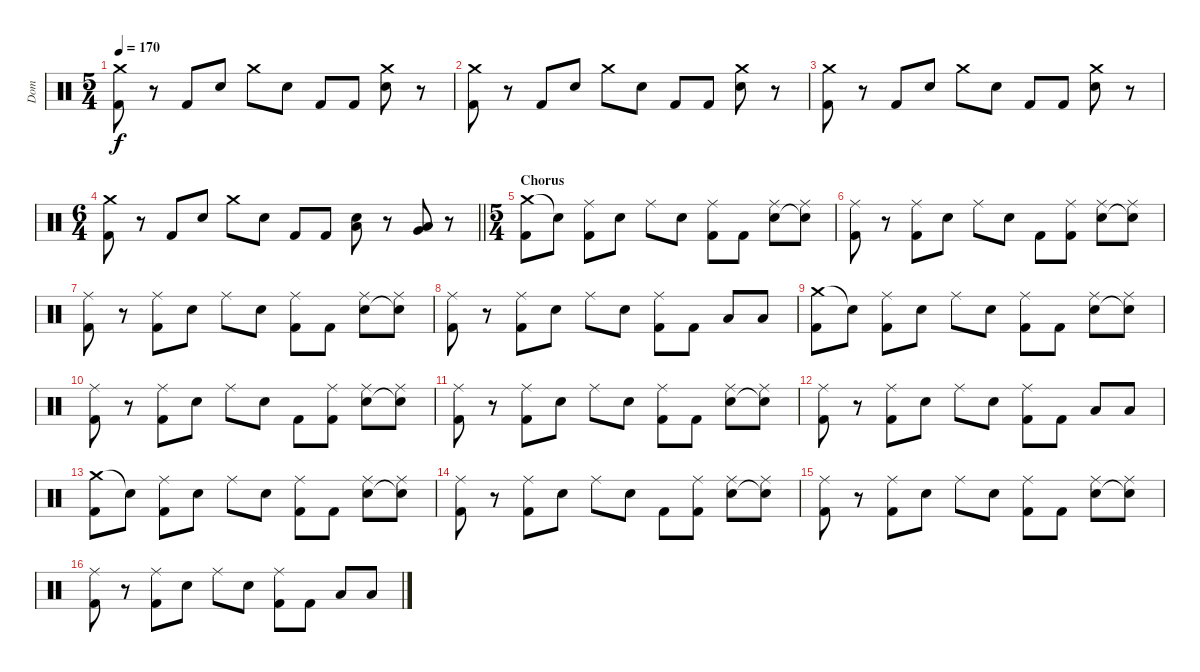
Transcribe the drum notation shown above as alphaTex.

\track ("Dom" "Dom") {instrument percussion}
\staff {score}
\articulation defaults
\ts (5 4)
\tempo 170
\clef neutral
\ks c
("Crash medium (hit)" "Kick (hit) 2").8{dy f} r.8 "Kick (hit) 2".8 "Electric Snare (hit)".8 "Crash medium (hit)".8 "Electric Snare (hit)".8 "Kick (hit) 2".8 "Kick (hit) 2".8 ("Crash medium (hit)" "Electric Snare (hit)").8 r.8 |
("Crash medium (hit)" "Kick (hit) 2").8 r.8 "Kick (hit) 2".8 "Electric Snare (hit)".8 "Crash medium (hit)".8 "Electric Snare (hit)".8 "Kick (hit) 2".8 "Kick (hit) 2".8 ("Crash medium (hit)" "Electric Snare (hit)").8 r.8 |
("Crash medium (hit)" "Kick (hit) 2").8 r.8 "Kick (hit) 2".8 "Electric Snare (hit)".8 "Crash medium (hit)".8 "Electric Snare (hit)".8 "Kick (hit) 2".8 "Kick (hit) 2".8 ("Crash medium (hit)" "Electric Snare (hit)").8 r.8 |
\ts (6 4)
\barLineRight lightlight
("Crash medium (hit)" "Kick (hit) 2").8 r.8 "Kick (hit) 2".8 "Electric Snare (hit)".8 "Crash medium (hit)".8 "Electric Snare (hit)".8 "Kick (hit) 2".8 "Kick (hit) 2".8 ("Low Tom (hit)" "Electric Snare (hit)").8 r.8 ("Low Tom (hit)" "Very Low Tom (hit)").8 r.8 |
\ts (5 4)
\section ("" "Chorus")
("Crash medium (hit)" "Kick (hit) 2").8 "Snare (hit)"{t}.8 ("Ride (middle)" "Kick (hit) 2").8 "Electric Snare (hit)".8 "Ride (middle)".8 "Electric Snare (hit)".8 ("Ride (middle)" "Kick (hit) 2").8 "Kick (hit) 2".8 ("Ride (middle)" "Electric Snare (hit)").8 ("Ride (middle)" "Snare (hit)"{t}).8 |
("Ride (middle)" "Kick (hit) 2").8 r.8 ("Ride (middle)" "Kick (hit) 2").8 "Electric Snare (hit)".8 "Ride (middle)".8 "Electric Snare (hit)".8 "Kick (hit) 2".8 ("Ride (middle)" "Kick (hit) 2").8 ("Ride (middle)" "Electric Snare (hit)").8 ("Ride (middle)" "Snare (hit)"{t}).8 |
("Ride (middle)" "Kick (hit) 2").8 r.8 ("Ride (middle)" "Kick (hit) 2").8 "Electric Snare (hit)".8 "Ride (middle)".8 "Electric Snare (hit)".8 ("Ride (middle)" "Kick (hit) 2").8 "Kick (hit) 2".8 ("Ride (middle)" "Electric Snare (hit)").8 ("Ride (middle)" "Snare (hit)"{t}).8 |
("Ride (middle)" "Kick (hit) 2").8 r.8 ("Ride (middle)" "Kick (hit) 2").8 "Electric Snare (hit)".8 "Ride (middle)".8 "Electric Snare (hit)".8 ("Ride (middle)" "Kick (hit) 2").8 "Kick (hit) 2".8 "Low Tom (hit)".8 "Low Tom (hit)".8 |
("Crash medium (hit)" "Kick (hit) 2").8 "Snare (hit)"{t}.8 ("Ride (middle)" "Kick (hit) 2").8 "Electric Snare (hit)".8 "Ride (middle)".8 "Electric Snare (hit)".8 ("Ride (middle)" "Kick (hit) 2").8 "Kick (hit) 2".8 ("Ride (middle)" "Electric Snare (hit)").8 ("Ride (middle)" "Snare (hit)"{t}).8 |
("Ride (middle)" "Kick (hit) 2").8 r.8 ("Ride (middle)" "Kick (hit) 2").8 "Electric Snare (hit)".8 "Ride (middle)".8 "Electric Snare (hit)".8 "Kick (hit) 2".8 ("Ride (middle)" "Kick (hit) 2").8 ("Ride (middle)" "Electric Snare (hit)").8 ("Ride (middle)" "Snare (hit)"{t}).8 |
("Ride (middle)" "Kick (hit) 2").8 r.8 ("Ride (middle)" "Kick (hit) 2").8 "Electric Snare (hit)".8 "Ride (middle)".8 "Electric Snare (hit)".8 ("Ride (middle)" "Kick (hit) 2").8 "Kick (hit) 2".8 ("Ride (middle)" "Electric Snare (hit)").8 ("Ride (middle)" "Snare (hit)"{t}).8 |
("Ride (middle)" "Kick (hit) 2").8 r.8 ("Ride (middle)" "Kick (hit) 2").8 "Electric Snare (hit)".8 "Ride (middle)".8 "Electric Snare (hit)".8 ("Ride (middle)" "Kick (hit) 2").8 "Kick (hit) 2".8 "Low Tom (hit)".8 "Low Tom (hit)".8 |
("Crash medium (hit)" "Kick (hit) 2").8 "Snare (hit)"{t}.8 ("Ride (middle)" "Kick (hit) 2").8 "Electric Snare (hit)".8 "Ride (middle)".8 "Electric Snare (hit)".8 ("Ride (middle)" "Kick (hit) 2").8 "Kick (hit) 2".8 ("Ride (middle)" "Electric Snare (hit)").8 ("Ride (middle)" "Snare (hit)"{t}).8 |
("Ride (middle)" "Kick (hit) 2").8 r.8 ("Ride (middle)" "Kick (hit) 2").8 "Electric Snare (hit)".8 "Ride (middle)".8 "Electric Snare (hit)".8 "Kick (hit) 2".8 ("Ride (middle)" "Kick (hit) 2").8 ("Ride (middle)" "Electric Snare (hit)").8 ("Ride (middle)" "Snare (hit)"{t}).8 |
("Ride (middle)" "Kick (hit) 2").8 r.8 ("Ride (middle)" "Kick (hit) 2").8 "Electric Snare (hit)".8 "Ride (middle)".8 "Electric Snare (hit)".8 ("Ride (middle)" "Kick (hit) 2").8 "Kick (hit) 2".8 ("Ride (middle)" "Electric Snare (hit)").8 ("Ride (middle)" "Snare (hit)"{t}).8 |
("Ride (middle)" "Kick (hit) 2").8 r.8 ("Ride (middle)" "Kick (hit) 2").8 "Electric Snare (hit)".8 "Ride (middle)".8 "Electric Snare (hit)".8 ("Ride (middle)" "Kick (hit) 2").8 "Kick (hit) 2".8 "Low Tom (hit)".8 "Low Tom (hit)".8
